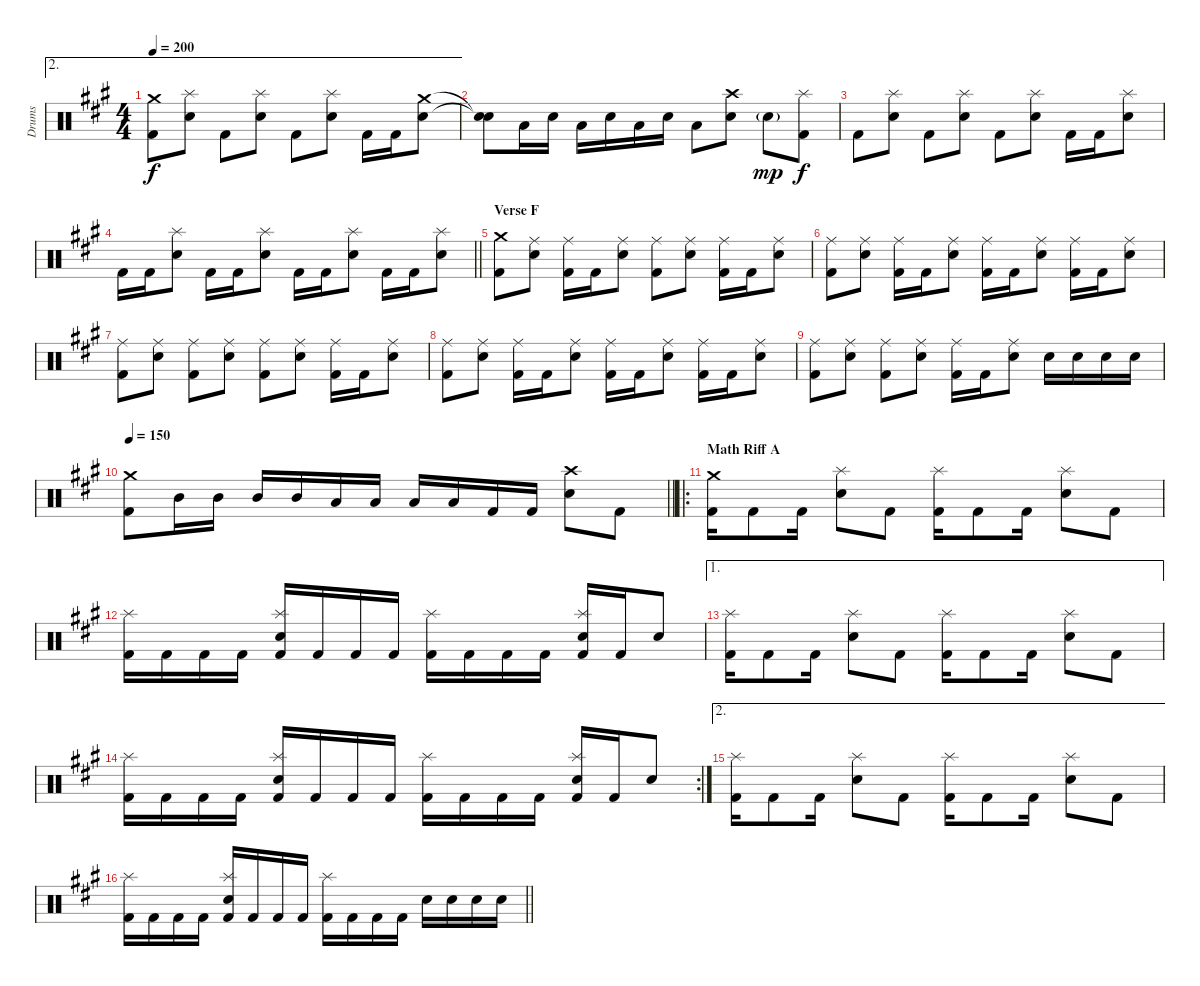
\track ("Drums" "Drums") {instrument percussion}
\staff {score}
\articulation defaults
\ae 2
\ts (4 4)
\tempo 200
\clef neutral
\ks f#minor
("Crash medium (hit)" "Kick (hit) 2").8{dy f} ("Splash (hit)" "Snare (hit) 2").8 "Kick (hit) 2".8 ("Splash (hit)" "Snare (hit) 2").8 "Kick (hit) 2".8 ("Splash (hit)" "Snare (hit) 2").8 "Kick (hit) 2".16 "Kick (hit) 2".16 ("Crash medium (hit)" "Snare (hit) 2").8 |
("Snare (hit)"{t} "Snare (hit)"{t}).8 "Low Tom (hit)".16 "Snare (hit) 2".16 "Low Tom (hit)".16 "Snare (hit) 2".16 "Low Tom (hit)".16 "Snare (hit) 2".16 "Low Tom (hit)".8 ("Crash high (hit)" "Snare (hit) 2").8 "Snare (hit) 2"{g}.8{dy mp} ("Splash (hit)" "Kick (hit) 2").8{dy f} |
"Kick (hit) 2".8 ("Splash (hit)" "Snare (hit) 2").8 "Kick (hit) 2".8 ("Splash (hit)" "Snare (hit) 2").8 "Kick (hit) 2".8 ("Splash (hit)" "Snare (hit) 2").8 "Kick (hit) 2".16 "Kick (hit) 2".16 ("Splash (hit)" "Snare (hit) 2").8 |
\barLineRight lightlight "Kick (hit) 2".16 "Kick (hit) 2".16
("Splash (hit)" "Snare (hit) 2").8 "Kick (hit) 2".16 "Kick (hit) 2".16 ("Splash (hit)" "Snare (hit) 2").8 "Kick (hit) 2".16 "Kick (hit) 2".16 ("Splash (hit)" "Snare (hit) 2").8 "Kick (hit) 2".16 "Kick (hit) 2".16 ("Splash (hit)" "Snare (hit) 2").8 |
\section ("" "Verse F")
("Crash medium (hit)" "Kick (hit) 2").8 ("Ride (middle)" "Snare (hit) 2").8 ("Ride (middle)" "Kick (hit) 2").16 "Kick (hit) 2".16 ("Ride (middle)" "Snare (hit) 2").8 ("Ride (middle)" "Kick (hit) 2").8 ("Ride (middle)" "Snare (hit) 2").8 ("Ride (middle)" "Kick (hit) 2").16 "Kick (hit) 2".16 ("Ride (middle)" "Snare (hit) 2").8 |
("Ride (middle)" "Kick (hit) 2").8 ("Ride (middle)" "Snare (hit) 2").8 ("Ride (middle)" "Kick (hit) 2").16 "Kick (hit) 2".16 ("Ride (middle)" "Snare (hit) 2").8 ("Ride (middle)" "Kick (hit) 2").16 "Kick (hit) 2".16 ("Ride (middle)" "Snare (hit) 2").8 ("Ride (middle)" "Kick (hit) 2").16 "Kick (hit) 2".16 ("Ride (middle)" "Snare (hit) 2").8 |
("Ride (middle)" "Kick (hit) 2").8 ("Ride (middle)" "Snare (hit) 2").8 ("Ride (middle)" "Kick (hit) 2").8 ("Ride (middle)" "Snare (hit) 2").8 ("Ride (middle)" "Kick (hit) 2").8 ("Ride (middle)" "Snare (hit) 2").8 ("Ride (middle)" "Kick (hit) 2").16 "Kick (hit) 2".16 ("Ride (middle)" "Snare (hit) 2").8 |
("Ride (middle)" "Kick (hit) 2").8 ("Ride (middle)" "Snare (hit) 2").8 ("Ride (middle)" "Kick (hit) 2").16 "Kick (hit) 2".16 ("Ride (middle)" "Snare (hit) 2").8 ("Ride (middle)" "Kick (hit) 2").16 "Kick (hit) 2".16 ("Ride (middle)" "Snare (hit) 2").8 ("Ride (middle)" "Kick (hit) 2").16 "Kick (hit) 2".16 ("Ride (middle)" "Snare (hit) 2").8 |
("Ride (middle)" "Kick (hit) 2").8 ("Ride (middle)" "Snare (hit) 2").8 ("Ride (middle)" "Kick (hit) 2").8 ("Ride (middle)" "Snare (hit) 2").8 ("Ride (middle)" "Kick (hit) 2").16 "Kick (hit) 2".16 ("Ride (middle)" "Snare (hit) 2").8 "Snare (hit) 2".16 "Snare (hit) 2".16 "Snare (hit) 2".16 "Snare (hit) 2".16 |
\tempo 150
\barLineRight lightlight
("Crash medium (hit)" "Kick (hit) 2").8 "Mid Tom (hit)".16 "Mid Tom (hit)".16 "Mid Tom (hit)".16 "Mid Tom (hit)".16 "Low Tom (hit)".16 "Low Tom (hit)".16 "Low Tom (hit)".16 "Low Tom (hit)".16 "Kick (hit) 2".16 "Kick (hit) 2".16 ("Crash high (hit)" "Snare (hit) 2").8 "Kick (hit) 2".8 |
\ro
\section ("" "Math Riff A")
("Crash medium (hit)" "Kick (hit) 2").16 "Kick (hit) 2".8 "Kick (hit) 2".16 ("Splash (hit)" "Snare (hit) 2").8 "Kick (hit) 2".8 ("Splash (hit)" "Kick (hit) 2").16 "Kick (hit) 2".8 "Kick (hit) 2".16 ("Splash (hit)" "Snare (hit) 2").8 "Kick (hit) 2".8 |
("Splash (hit)" "Kick (hit) 2").16 "Kick (hit) 2".16 "Kick (hit) 2".16 "Kick (hit) 2".16 ("Splash (hit)" "Snare (hit) 2" "Kick (hit) 2").16 "Kick (hit) 2".16 "Kick (hit) 2".16 "Kick (hit) 2".16 ("Splash (hit)" "Kick (hit) 2").16 "Kick (hit) 2".16 "Kick (hit) 2".16 "Kick (hit) 2".16 ("Splash (hit)" "Snare (hit) 2" "Kick (hit) 2").16 "Kick (hit) 2".16 "Snare (hit) 2".8 |
\ae 1
("Splash (hit)" "Kick (hit) 2").16 "Kick (hit) 2".8 "Kick (hit) 2".16 ("Splash (hit)" "Snare (hit) 2").8 "Kick (hit) 2".8 ("Splash (hit)" "Kick (hit) 2").16 "Kick (hit) 2".8 "Kick (hit) 2".16 ("Splash (hit)" "Snare (hit) 2").8 "Kick (hit) 2".8 |
\rc 2
("Splash (hit)" "Kick (hit) 2").16 "Kick (hit) 2".16 "Kick (hit) 2".16 "Kick (hit) 2".16 ("Splash (hit)" "Snare (hit) 2" "Kick (hit) 2").16 "Kick (hit) 2".16 "Kick (hit) 2".16 "Kick (hit) 2".16 ("Splash (hit)" "Kick (hit) 2").16 "Kick (hit) 2".16 "Kick (hit) 2".16 "Kick (hit) 2".16 ("Splash (hit)" "Snare (hit) 2" "Kick (hit) 2").16 "Kick (hit) 2".16 "Snare (hit) 2".8 |
\ae 2
("Splash (hit)" "Kick (hit) 2").16 "Kick (hit) 2".8 "Kick (hit) 2".16 ("Splash (hit)" "Snare (hit) 2").8 "Kick (hit) 2".8 ("Splash (hit)" "Kick (hit) 2").16 "Kick (hit) 2".8 "Kick (hit) 2".16 ("Splash (hit)" "Snare (hit) 2").8 "Kick (hit) 2".8 |
\barLineRight lightlight
("Splash (hit)" "Kick (hit) 2").16 "Kick (hit) 2".16 "Kick (hit) 2".16 "Kick (hit) 2".16 ("Splash (hit)" "Snare (hit) 2" "Kick (hit) 2").16 "Kick (hit) 2".16 "Kick (hit) 2".16 "Kick (hit) 2".16 ("Splash (hit)" "Kick (hit) 2").16 "Kick (hit) 2".16 "Kick (hit) 2".16 "Kick (hit) 2".16 "Snare (hit) 2".16 "Snare (hit) 2".16 "Snare (hit) 2".16 "Snare (hit) 2".16
